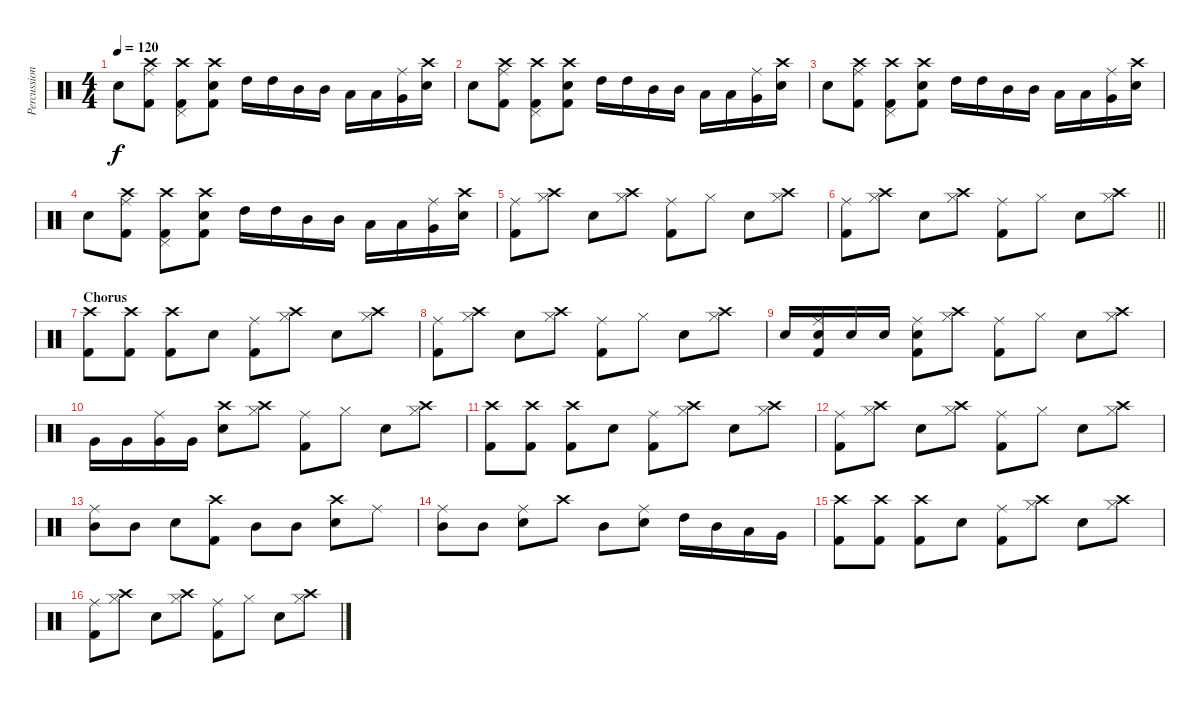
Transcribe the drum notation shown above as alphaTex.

\track ("Percussion" "Percussion") {instrument percussion}
\staff {score}
\articulation defaults
\ts (4 4)
\tempo 120
\clef neutral
\ks c "Electric Snare (hit)".8{dy f}
("Crash high (hit)" "Ride (middle)" "Kick (hit) 2").8 ("Crash high (hit)" "Pedal Hi-Hat (hit)" "Kick (hit) 2").8 ("Crash high (hit)" "Electric Snare (hit)" "Kick (hit) 2").8 "High Tom (hit)".16 "High Tom (hit)".16 "Mid Tom (hit)".16 "Mid Tom (hit)".16 "Low Tom (hit)".16 "Low Tom (hit)".16 ("Ride (middle)" "Very Low Tom (hit)").16 ("Crash high (hit)" "Electric Snare (hit)").16 |
"Electric Snare (hit)".8 ("Crash high (hit)" "Ride (middle)" "Kick (hit) 2").8 ("Crash high (hit)" "Pedal Hi-Hat (hit)" "Kick (hit) 2").8 ("Crash high (hit)" "Electric Snare (hit)" "Kick (hit) 2").8 "High Tom (hit)".16 "High Tom (hit)".16 "Mid Tom (hit)".16 "Mid Tom (hit)".16 "Low Tom (hit)".16 "Low Tom (hit)".16 ("Ride (middle)" "Very Low Tom (hit)").16 ("Crash high (hit)" "Electric Snare (hit)").16 |
"Electric Snare (hit)".8 ("Crash high (hit)" "Ride (middle)" "Kick (hit) 2").8 ("Crash high (hit)" "Pedal Hi-Hat (hit)" "Kick (hit) 2").8 ("Crash high (hit)" "Electric Snare (hit)" "Kick (hit) 2").8 "High Tom (hit)".16 "High Tom (hit)".16 "Mid Tom (hit)".16 "Mid Tom (hit)".16 "Low Tom (hit)".16 "Low Tom (hit)".16 ("Ride (middle)" "Very Low Tom (hit)").16 ("Crash high (hit)" "Electric Snare (hit)").16 |
"Electric Snare (hit)".8 ("Crash high (hit)" "Ride (middle)" "Kick (hit) 2").8 ("Crash high (hit)" "Pedal Hi-Hat (hit)" "Kick (hit) 2").8 ("Crash high (hit)" "Electric Snare (hit)" "Kick (hit) 2").8 "High Tom (hit)".16 "High Tom (hit)".16 "Mid Tom (hit)".16 "Mid Tom (hit)".16 "Low Tom (hit)".16 "Low Tom (hit)".16 ("Ride (middle)" "Very Low Tom (hit)").16 ("Crash high (hit)" "Electric Snare (hit)").16 |
("Ride (middle)" "Kick (hit) 2").8 ("Crash high (hit)" "Hi-Hat (closed)").8 "Electric Snare (hit)".8 ("Crash high (hit)" "Hi-Hat (closed)").8 ("Ride (middle)" "Kick (hit) 2").8 "Hi-Hat (closed)".8 "Electric Snare (hit)".8 ("Crash high (hit)" "Hi-Hat (closed)").8 |
\barLineRight lightlight
("Ride (middle)" "Kick (hit) 2").8 ("Crash high (hit)" "Hi-Hat (closed)").8 "Electric Snare (hit)".8 ("Crash high (hit)" "Hi-Hat (closed)").8 ("Ride (middle)" "Kick (hit) 2").8 "Hi-Hat (closed)".8 "Electric Snare (hit)".8 ("Crash high (hit)" "Hi-Hat (closed)").8 |
\section ("" "Chorus")
("Crash high (hit)" "Kick (hit) 2").8 ("Crash high (hit)" "Kick (hit) 2").8 ("Crash high (hit)" "Kick (hit) 2").8 "Electric Snare (hit)".8 ("Ride (middle)" "Kick (hit) 2").8 ("Crash high (hit)" "Hi-Hat (closed)").8 "Electric Snare (hit)".8 ("Crash high (hit)" "Hi-Hat (closed)").8 |
("Ride (middle)" "Kick (hit) 2").8 ("Crash high (hit)" "Hi-Hat (closed)").8 "Electric Snare (hit)".8 ("Crash high (hit)" "Hi-Hat (closed)").8 ("Ride (middle)" "Kick (hit) 2").8 "Hi-Hat (closed)".8 "Electric Snare (hit)".8 ("Crash high (hit)" "Hi-Hat (closed)").8 |
"Electric Snare (hit)".16 ("Ride (middle)" "Electric Snare (hit)" "Kick (hit) 2").16 "Electric Snare (hit)".16 "Electric Snare (hit)".16 ("Ride (middle)" "Electric Snare (hit)" "Kick (hit) 2").8 ("Crash high (hit)" "Hi-Hat (closed)").8 ("Ride (middle)" "Kick (hit) 2").8 "Hi-Hat (closed)".8 "Electric Snare (hit)".8 ("Crash high (hit)" "Hi-Hat (closed)").8 |
"Very Low Tom (hit)".16 "Very Low Tom (hit)".16 ("Ride (middle)" "Very Low Tom (hit)").16 "Very Low Tom (hit)".16 ("Crash high (hit)" "Electric Snare (hit)").8 ("Crash high (hit)" "Hi-Hat (closed)").8 ("Ride (middle)" "Kick (hit) 2").8 "Hi-Hat (closed)".8 "Electric Snare (hit)".8 ("Crash high (hit)" "Hi-Hat (closed)").8 |
("Crash high (hit)" "Kick (hit) 2").8 ("Crash high (hit)" "Kick (hit) 2").8 ("Crash high (hit)" "Kick (hit) 2").8 "Electric Snare (hit)".8 ("Ride (middle)" "Kick (hit) 2").8 ("Crash high (hit)" "Hi-Hat (closed)").8 "Electric Snare (hit)".8 ("Crash high (hit)" "Hi-Hat (closed)").8 |
("Ride (middle)" "Kick (hit) 2").8 ("Crash high (hit)" "Hi-Hat (closed)").8 "Electric Snare (hit)".8 ("Crash high (hit)" "Hi-Hat (closed)").8 ("Ride (middle)" "Kick (hit) 2").8 "Hi-Hat (closed)".8 "Electric Snare (hit)".8 ("Crash high (hit)" "Hi-Hat (closed)").8 |
("Ride (middle)" "Mid Tom (hit)").8 "Mid Tom (hit)".8 "Electric Snare (hit)".8 ("Crash high (hit)" "Kick (hit) 2").8 "Mid Tom (hit)".8 "Mid Tom (hit)".8 ("Crash high (hit)" "Electric Snare (hit)").8 "Ride (middle)".8 |
("Ride (middle)" "Mid Tom (hit)").8 "Mid Tom (hit)".8 ("Ride (middle)" "Electric Snare (hit)").8 "Crash high (hit)".8 "Mid Tom (hit)".8 ("Ride (middle)" "Electric Snare (hit)").8 "High Tom (hit)".16 "Mid Tom (hit)".16 "Low Tom (hit)".16 "Very Low Tom (hit)".16 |
("Crash high (hit)" "Kick (hit) 2").8 ("Crash high (hit)" "Kick (hit) 2").8 ("Crash high (hit)" "Kick (hit) 2").8 "Electric Snare (hit)".8 ("Ride (middle)" "Kick (hit) 2").8 ("Crash high (hit)" "Hi-Hat (closed)").8 "Electric Snare (hit)".8 ("Crash high (hit)" "Hi-Hat (closed)").8 |
("Ride (middle)" "Kick (hit) 2").8 ("Crash high (hit)" "Hi-Hat (closed)").8 "Electric Snare (hit)".8 ("Crash high (hit)" "Hi-Hat (closed)").8 ("Ride (middle)" "Kick (hit) 2").8 "Hi-Hat (closed)".8 "Electric Snare (hit)".8 ("Crash high (hit)" "Hi-Hat (closed)").8
